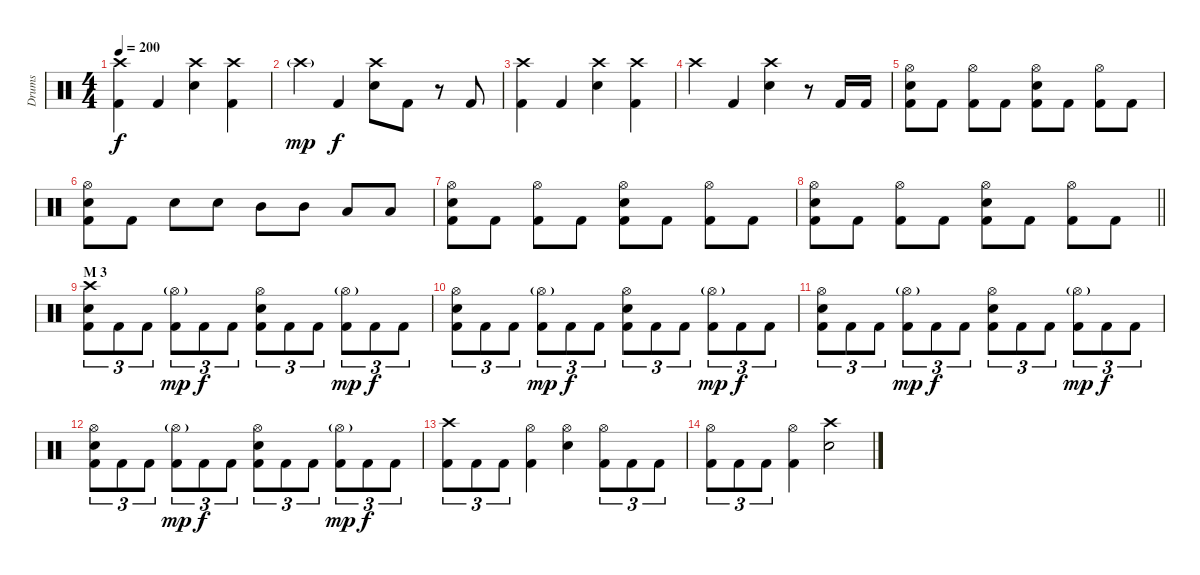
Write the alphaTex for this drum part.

\track ("Drums" "Drums") {instrument percussion}
\staff {score}
\articulation defaults
\ts (4 4)
\tempo 200
\clef neutral
\ks c
("Crash high (hit)" "Kick (hit) 2").4{dy f} "Kick (hit) 2".4 ("Crash high (hit)" "Snare (hit) 2").4 ("Crash high (hit)" "Kick (hit) 2").4 |
"Crash high (hit)"{g}.4{dy mp} "Kick (hit) 2".4{dy f} ("Crash high (hit)" "Snare (hit) 2").8 "Kick (hit) 2".8 r.8 "Kick (hit) 2".8 |
("Crash high (hit)" "Kick (hit) 2").4 "Kick (hit) 2".4 ("Crash high (hit)" "Snare (hit) 2").4 ("Crash high (hit)" "Kick (hit) 2").4 |
"Crash high (hit)".4 "Kick (hit) 2".4 ("Crash high (hit)" "Snare (hit) 2").4 r.8 "Kick (hit) 2".16 "Kick (hit) 2".16 |
("Hi-Hat (open)" "Snare (hit) 2" "Kick (hit) 2").8 "Kick (hit) 2".8 ("Hi-Hat (open)" "Kick (hit) 2").8 "Kick (hit) 2".8 ("Hi-Hat (open)" "Snare (hit) 2" "Kick (hit) 2").8 "Kick (hit) 2".8 ("Hi-Hat (open)" "Kick (hit) 2").8 "Kick (hit) 2".8 |
("Hi-Hat (open)" "Snare (hit) 2" "Kick (hit) 2").8 "Kick (hit) 2".8 "Snare (hit) 2".8 "Snare (hit) 2".8 "Mid Tom (hit)".8 "Mid Tom (hit)".8 "Low Tom (hit)".8 "Low Tom (hit)".8 |
("Hi-Hat (open)" "Snare (hit) 2" "Kick (hit) 2").8 "Kick (hit) 2".8 ("Hi-Hat (open)" "Kick (hit) 2").8 "Kick (hit) 2".8 ("Hi-Hat (open)" "Snare (hit) 2" "Kick (hit) 2").8 "Kick (hit) 2".8 ("Hi-Hat (open)" "Kick (hit) 2").8 "Kick (hit) 2".8 |
\barLineRight lightlight
("Hi-Hat (open)" "Snare (hit) 2" "Kick (hit) 2").8 "Kick (hit) 2".8 ("Hi-Hat (open)" "Kick (hit) 2").8 "Kick (hit) 2".8 ("Hi-Hat (open)" "Snare (hit) 2" "Kick (hit) 2").8 "Kick (hit) 2".8 ("Hi-Hat (open)" "Kick (hit) 2").8 "Kick (hit) 2".8 |
\section ("" "M 3")
("Crash high (hit)" "Snare (hit) 2" "Kick (hit) 2").8{tu (3 2)} "Kick (hit) 2".8{tu (3 2)} "Kick (hit) 2".8{tu (3 2)} ("Hi-Hat (open)"{g} "Kick (hit) 2").8{tu (3 2) dy mp} "Kick (hit) 2".8{tu (3 2) dy f} "Kick (hit) 2".8{tu (3 2)} ("Hi-Hat (open)" "Snare (hit) 2" "Kick (hit) 2").8{tu (3 2)} "Kick (hit) 2".8{tu (3 2)} "Kick (hit) 2".8{tu (3 2)} ("Hi-Hat (open)"{g} "Kick (hit) 2").8{tu (3 2) dy mp} "Kick (hit) 2".8{tu (3 2) dy f} "Kick (hit) 2".8{tu (3 2)} |
("Hi-Hat (open)" "Snare (hit) 2" "Kick (hit) 2").8{tu (3 2)} "Kick (hit) 2".8{tu (3 2)} "Kick (hit) 2".8{tu (3 2)} ("Hi-Hat (open)"{g} "Kick (hit) 2").8{tu (3 2) dy mp} "Kick (hit) 2".8{tu (3 2) dy f} "Kick (hit) 2".8{tu (3 2)} ("Hi-Hat (open)" "Snare (hit) 2" "Kick (hit) 2").8{tu (3 2)} "Kick (hit) 2".8{tu (3 2)} "Kick (hit) 2".8{tu (3 2)} ("Hi-Hat (open)"{g} "Kick (hit) 2").8{tu (3 2) dy mp} "Kick (hit) 2".8{tu (3 2) dy f} "Kick (hit) 2".8{tu (3 2)} |
("Hi-Hat (open)" "Snare (hit) 2" "Kick (hit) 2").8{tu (3 2)} "Kick (hit) 2".8{tu (3 2)} "Kick (hit) 2".8{tu (3 2)} ("Hi-Hat (open)"{g} "Kick (hit) 2").8{tu (3 2) dy mp} "Kick (hit) 2".8{tu (3 2) dy f} "Kick (hit) 2".8{tu (3 2)} ("Hi-Hat (open)" "Snare (hit) 2" "Kick (hit) 2").8{tu (3 2)} "Kick (hit) 2".8{tu (3 2)} "Kick (hit) 2".8{tu (3 2)} ("Hi-Hat (open)"{g} "Kick (hit) 2").8{tu (3 2) dy mp} "Kick (hit) 2".8{tu (3 2) dy f} "Kick (hit) 2".8{tu (3 2)} |
("Hi-Hat (open)" "Snare (hit) 2" "Kick (hit) 2").8{tu (3 2)} "Kick (hit) 2".8{tu (3 2)} "Kick (hit) 2".8{tu (3 2)} ("Hi-Hat (open)"{g} "Kick (hit) 2").8{tu (3 2) dy mp} "Kick (hit) 2".8{tu (3 2) dy f} "Kick (hit) 2".8{tu (3 2)} ("Hi-Hat (open)" "Snare (hit) 2" "Kick (hit) 2").8{tu (3 2)} "Kick (hit) 2".8{tu (3 2)} "Kick (hit) 2".8{tu (3 2)} ("Hi-Hat (open)"{g} "Kick (hit) 2").8{tu (3 2) dy mp} "Kick (hit) 2".8{tu (3 2) dy f} "Kick (hit) 2".8{tu (3 2)} |
("Crash high (hit)" "Kick (hit) 2").8{tu (3 2)} "Kick (hit) 2".8{tu (3 2)} "Kick (hit) 2".8{tu (3 2)} ("Hi-Hat (open)" "Kick (hit) 2").4 ("Hi-Hat (open)" "Snare (hit) 2").4 ("Hi-Hat (open)" "Kick (hit) 2").8{tu (3 2)} "Kick (hit) 2".8{tu (3 2)} "Kick (hit) 2".8{tu (3 2)} |
("Hi-Hat (open)" "Kick (hit) 2").8{tu (3 2)} "Kick (hit) 2".8{tu (3 2)} "Kick (hit) 2".8{tu (3 2)} ("Hi-Hat (open)" "Kick (hit) 2").4 ("Crash high (hit)" "Snare (hit) 2").2
